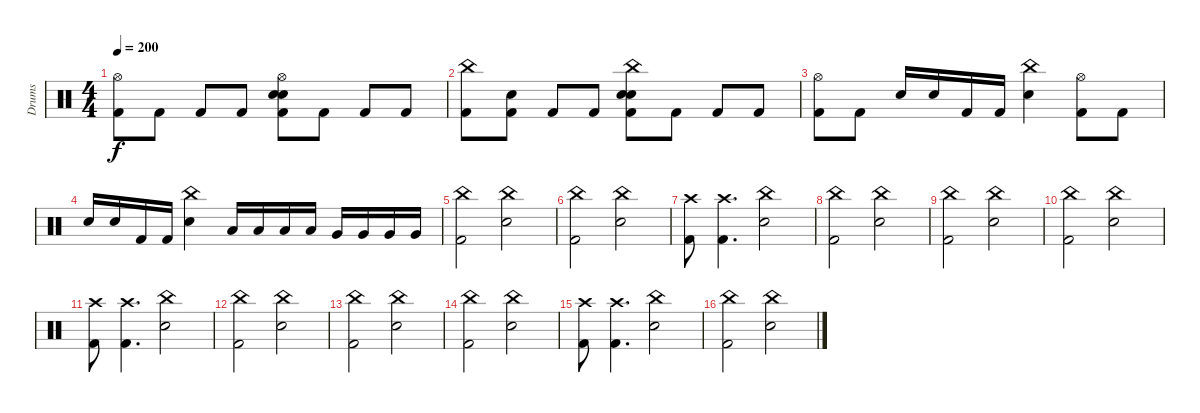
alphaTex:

\track ("Drums" "Drums") {instrument percussion bank 169}
\staff {score}
\articulation defaults
\ts (4 4)
\tempo 200
\clef neutral
\ks c
("Hi-Hat (open)" "Kick (hit) 2").8{dy f} "Kick (hit) 2".8 "Kick (hit) 2".8 "Kick (hit) 2".8 ("Hi-Hat (open)" "Snare (hit) 2" "Snare (hit) 2" "Kick (hit) 2").8 "Kick (hit) 2".8 "Kick (hit) 2".8 "Kick (hit) 2".8 |
("China (hit)" "Kick (hit) 2").8 ("Snare (hit) 2" "Kick (hit) 2").8 "Kick (hit) 2".8 "Kick (hit) 2".8 ("China (hit)" "Snare (hit) 2" "Snare (hit) 2" "Kick (hit) 2").8 "Kick (hit) 2".8 "Kick (hit) 2".8 "Kick (hit) 2".8 |
("Hi-Hat (open)" "Kick (hit) 2").8 "Kick (hit) 2".8 "Snare (hit) 2".16 "Snare (hit) 2".16 "Kick (hit) 2".16 "Kick (hit) 2".16 ("China (hit)" "Snare (hit) 2").4 ("Hi-Hat (open)" "Kick (hit) 2").8 "Kick (hit) 2".8 |
"Snare (hit) 2".16 "Snare (hit) 2".16 "Kick (hit) 2".16 "Kick (hit) 2".16 ("China (hit)" "Snare (hit) 2").4 "Low Tom (hit)".16 "Low Tom (hit)".16 "Low Tom (hit)".16 "Low Tom (hit)".16 "Very Low Tom (hit)".16 "Very Low Tom (hit)".16 "Very Low Tom (hit)".16 "Very Low Tom (hit)".16 |
("China (hit)" "Kick (hit) 2").2 ("China (hit)" "Snare (hit) 2").2 |
("China (hit)" "Kick (hit) 2").2 ("China (hit)" "Snare (hit) 2").2 |
("Crash high (hit)"{x} "Kick (hit) 2").8 ("Crash high (hit)"{x} "Kick (hit) 2").4{d} ("China (hit)" "Snare (hit) 2").2 |
("China (hit)" "Kick (hit) 2").2 ("China (hit)" "Snare (hit) 2").2 |
("China (hit)" "Kick (hit) 2").2 ("China (hit)" "Snare (hit) 2").2 |
("China (hit)" "Kick (hit) 2").2 ("China (hit)" "Snare (hit) 2").2 |
("Crash high (hit)"{x} "Kick (hit) 2").8 ("Crash high (hit)"{x} "Kick (hit) 2").4{d} ("China (hit)" "Snare (hit) 2").2 |
("China (hit)" "Kick (hit) 2").2 ("China (hit)" "Snare (hit) 2").2 |
("China (hit)" "Kick (hit) 2").2 ("China (hit)" "Snare (hit) 2").2 |
("China (hit)" "Kick (hit) 2").2 ("China (hit)" "Snare (hit) 2").2 |
("Crash high (hit)"{x} "Kick (hit) 2").8 ("Crash high (hit)"{x} "Kick (hit) 2").4{d} ("China (hit)" "Snare (hit) 2").2 |
("China (hit)" "Kick (hit) 2").2 ("China (hit)" "Snare (hit) 2").2
